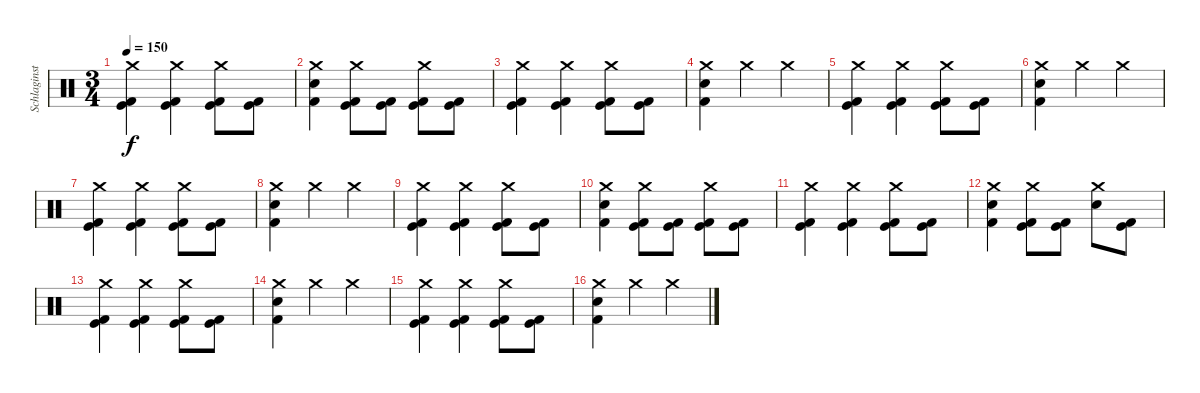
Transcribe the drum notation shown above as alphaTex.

\track ("Schlaginstrumente - Auswahl" "Schlaginst") {instrument percussion}
\staff {score}
\articulation defaults
\ts (3 4)
\tempo 150
\clef neutral
\ks c
("Crash medium (hit)" "Kick (hit)" "Kick (hit) 2").4{dy f} ("Crash medium (hit)" "Kick (hit)" "Kick (hit) 2").4 ("Crash medium (hit)" "Kick (hit)" "Kick (hit) 2").8 ("Kick (hit)" "Kick (hit) 2").8 |
("Crash medium (hit)" "Electric Snare (hit)" "Kick (hit) 2").4 ("Crash medium (hit)" "Kick (hit)" "Kick (hit) 2").8 ("Kick (hit)" "Kick (hit) 2").8 ("Crash medium (hit)" "Kick (hit)" "Kick (hit) 2").8 ("Kick (hit)" "Kick (hit) 2").8 |
("Crash medium (hit)" "Kick (hit)" "Kick (hit) 2").4 ("Crash medium (hit)" "Kick (hit)" "Kick (hit) 2").4 ("Crash medium (hit)" "Kick (hit)" "Kick (hit) 2").8 ("Kick (hit)" "Kick (hit) 2").8 |
("Crash medium (hit)" "Electric Snare (hit)" "Kick (hit) 2").4 "Crash medium (hit)".4 "Crash medium (hit)".4 |
("Crash medium (hit)" "Kick (hit)" "Kick (hit) 2").4 ("Crash medium (hit)" "Kick (hit)" "Kick (hit) 2").4 ("Crash medium (hit)" "Kick (hit)" "Kick (hit) 2").8 ("Kick (hit)" "Kick (hit) 2").8 |
("Crash medium (hit)" "Electric Snare (hit)" "Kick (hit) 2").4 "Crash medium (hit)".4 "Crash medium (hit)".4 |
("Crash medium (hit)" "Kick (hit)" "Kick (hit) 2").4 ("Crash medium (hit)" "Kick (hit)" "Kick (hit) 2").4 ("Crash medium (hit)" "Kick (hit)" "Kick (hit) 2").8 ("Kick (hit)" "Kick (hit) 2").8 |
("Crash medium (hit)" "Electric Snare (hit)" "Kick (hit) 2").4 "Crash medium (hit)".4 "Crash medium (hit)".4 |
("Crash medium (hit)" "Kick (hit)" "Kick (hit) 2").4 ("Crash medium (hit)" "Kick (hit)" "Kick (hit) 2").4 ("Crash medium (hit)" "Kick (hit)" "Kick (hit) 2").8 ("Kick (hit)" "Kick (hit) 2").8 |
("Crash medium (hit)" "Electric Snare (hit)" "Kick (hit) 2").4 ("Crash medium (hit)" "Kick (hit)" "Kick (hit) 2").8 ("Kick (hit)" "Kick (hit) 2").8 ("Crash medium (hit)" "Kick (hit)" "Kick (hit) 2").8 ("Kick (hit)" "Kick (hit) 2").8 |
("Crash medium (hit)" "Kick (hit)" "Kick (hit) 2").4 ("Crash medium (hit)" "Kick (hit)" "Kick (hit) 2").4 ("Crash medium (hit)" "Kick (hit)" "Kick (hit) 2").8 ("Kick (hit)" "Kick (hit) 2").8 |
("Crash medium (hit)" "Electric Snare (hit)" "Kick (hit) 2").4 ("Crash medium (hit)" "Kick (hit)" "Kick (hit) 2").8 ("Kick (hit)" "Kick (hit) 2").8 ("Crash medium (hit)" "Electric Snare (hit)").8 ("Kick (hit)" "Kick (hit) 2").8 |
("Crash medium (hit)" "Kick (hit)" "Kick (hit) 2").4 ("Crash medium (hit)" "Kick (hit)" "Kick (hit) 2").4 ("Crash medium (hit)" "Kick (hit)" "Kick (hit) 2").8 ("Kick (hit)" "Kick (hit) 2").8 |
("Crash medium (hit)" "Electric Snare (hit)" "Kick (hit) 2").4 "Crash medium (hit)".4 "Crash medium (hit)".4 |
("Crash medium (hit)" "Kick (hit)" "Kick (hit) 2").4 ("Crash medium (hit)" "Kick (hit)" "Kick (hit) 2").4 ("Crash medium (hit)" "Kick (hit)" "Kick (hit) 2").8 ("Kick (hit)" "Kick (hit) 2").8 |
("Crash medium (hit)" "Electric Snare (hit)" "Kick (hit) 2").4 "Crash medium (hit)".4 "Crash medium (hit)".4
